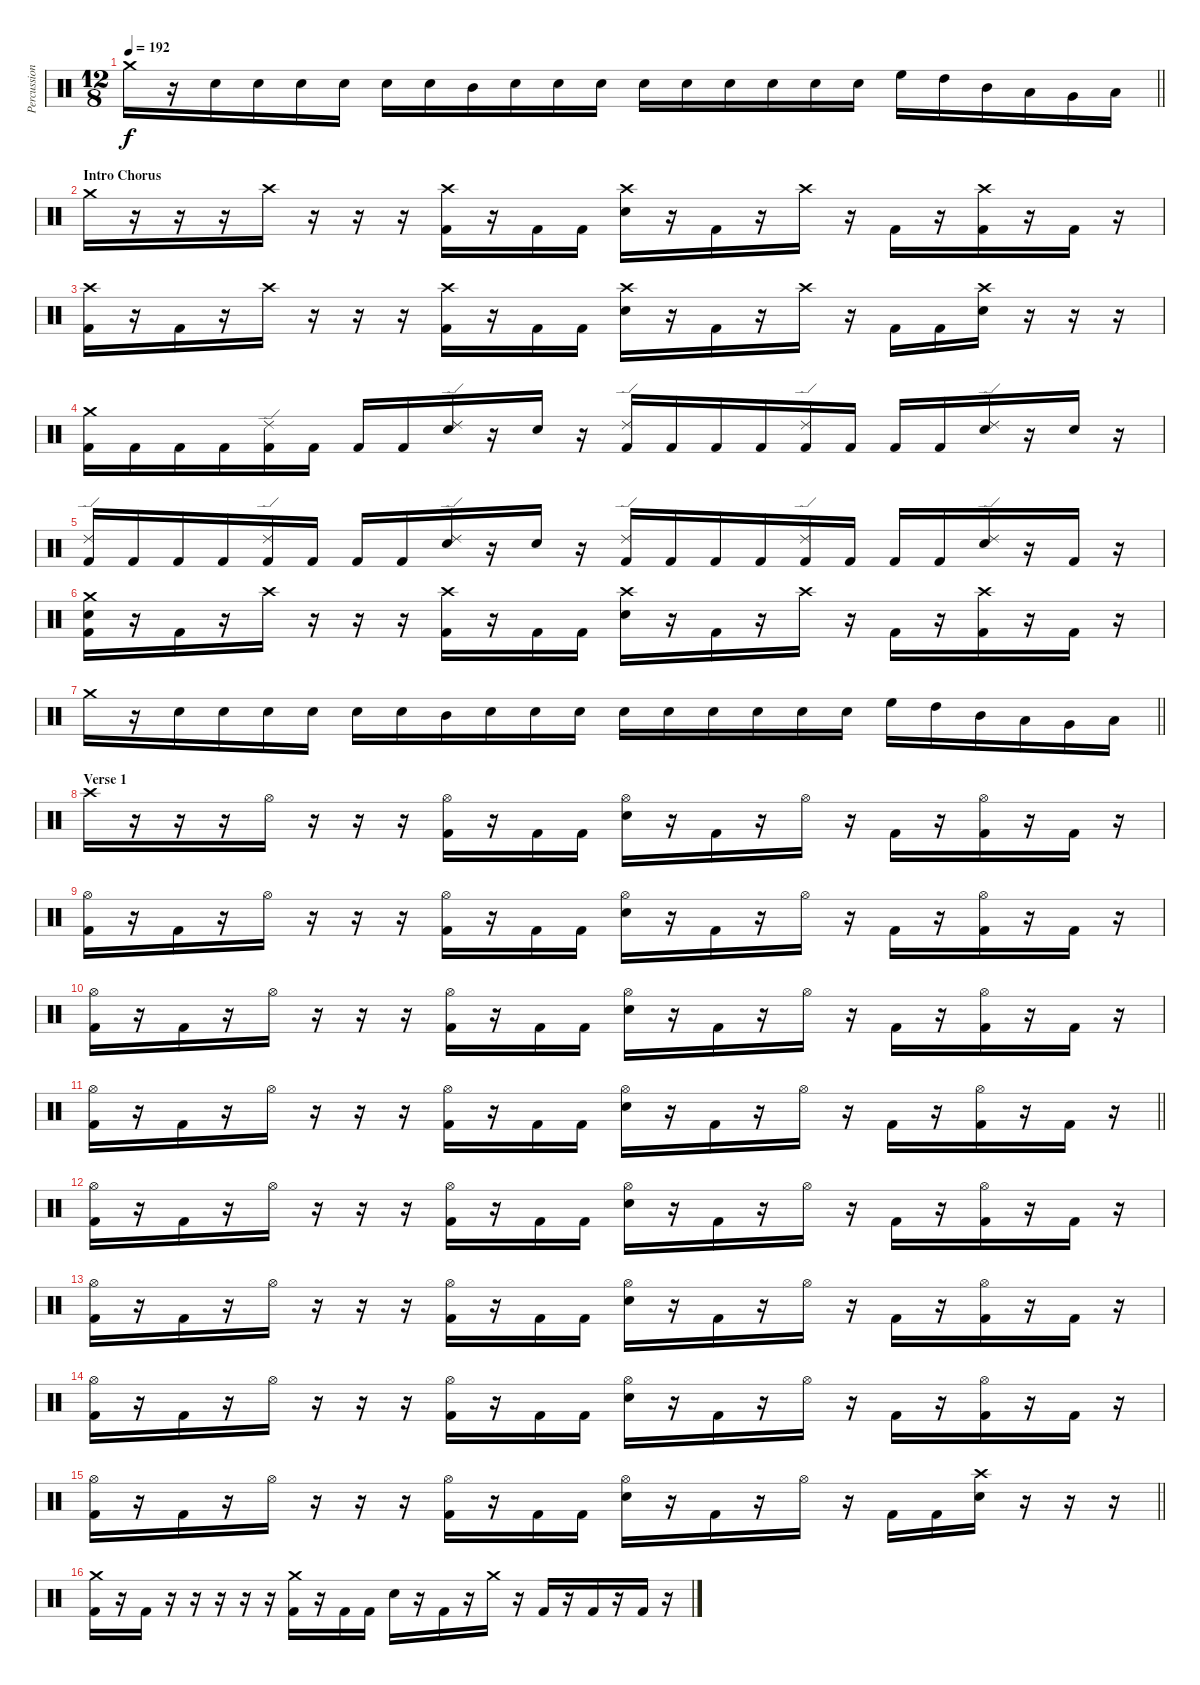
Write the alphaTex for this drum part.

\track ("Percussion" "Percussion") {instrument percussion}
\staff {score}
\articulation defaults
\ts (12 8)
\tempo 192
\clef neutral
\barLineRight lightlight
\ks c "Crash medium (hit)".16{dy f}
r.16 "Electric Snare (hit)".16 "Electric Snare (hit)".16 "Electric Snare (hit)".16 "Electric Snare (hit)".16 "Electric Snare (hit)".16 "Electric Snare (hit)".16 "Mid Tom (hit)".16 "Electric Snare (hit)".16 "Electric Snare (hit)".16 "Electric Snare (hit)".16 "Electric Snare (hit)".16 "Electric Snare (hit)".16 "Electric Snare (hit)".16 "Electric Snare (hit)".16 "Electric Snare (hit)".16 "Electric Snare (hit)".16 "High Floor Tom (hit)".16 "High Tom (hit)".16 "Mid Tom (hit)".16 "Low Tom (hit)".16 "Very Low Tom (hit)".16 "Low Floor Tom (hit)".16 |
\section ("" "Intro Chorus")
"Crash medium (hit)".16 r.16 r.16 r.16 "Crash high (hit)".16 r.16 r.16 r.16 ("Crash high (hit)" "Kick (hit) 2").16 r.16 "Kick (hit) 2".16 "Kick (hit) 2".16 ("Crash high (hit)" "Electric Snare (hit)").16 r.16 "Kick (hit) 2".16 r.16 "Crash high (hit)".16 r.16 "Kick (hit) 2".16 r.16 ("Crash high (hit)" "Kick (hit) 2").16 r.16 "Kick (hit) 2".16 r.16 |
("Crash high (hit)" "Kick (hit) 2").16 r.16 "Kick (hit) 2".16 r.16 "Crash high (hit)".16 r.16 r.16 r.16 ("Crash high (hit)" "Kick (hit) 2").16 r.16 "Kick (hit) 2".16 "Kick (hit) 2".16 ("Crash high (hit)" "Electric Snare (hit)").16 r.16 "Kick (hit) 2".16 r.16 "Crash high (hit)".16 r.16 "Kick (hit) 2".16 "Kick (hit) 2".16 ("Crash high (hit)" "Electric Snare (hit)").16 r.16 r.16 r.16 |
("Crash medium (hit)" "Kick (hit) 2").16 "Kick (hit) 2".16 "Kick (hit) 2".16 "Kick (hit) 2".16 ("Ride (edge) 2" "Kick (hit) 2").16 "Kick (hit) 2".16 "Kick (hit) 2".16 "Kick (hit) 2".16 ("Ride (edge) 2" "Electric Snare (hit)").16 r.16 "Electric Snare (hit)".16 r.16 ("Ride (edge) 2" "Kick (hit) 2").16 "Kick (hit) 2".16 "Kick (hit) 2".16 "Kick (hit) 2".16 ("Ride (edge) 2" "Kick (hit) 2").16 "Kick (hit) 2".16 "Kick (hit) 2".16 "Kick (hit) 2".16 ("Ride (edge) 2" "Electric Snare (hit)").16 r.16 "Electric Snare (hit)".16 r.16 |
("Ride (edge) 2" "Kick (hit) 2").16 "Kick (hit) 2".16 "Kick (hit) 2".16 "Kick (hit) 2".16 ("Ride (edge) 2" "Kick (hit) 2").16 "Kick (hit) 2".16 "Kick (hit) 2".16 "Kick (hit) 2".16 ("Ride (edge) 2" "Electric Snare (hit)").16 r.16 "Electric Snare (hit)".16 r.16 ("Ride (edge) 2" "Kick (hit) 2").16 "Kick (hit) 2".16 "Kick (hit) 2".16 "Kick (hit) 2".16 ("Ride (edge) 2" "Kick (hit) 2").16 "Kick (hit) 2".16 "Kick (hit) 2".16 "Kick (hit) 2".16 ("Ride (edge) 2" "Electric Snare (hit)").16 r.16 "Kick (hit) 2".16 r.16 |
("Crash medium (hit)" "Electric Snare (hit)" "Kick (hit) 2").16 r.16 "Kick (hit) 2".16 r.16 "Crash high (hit)".16 r.16 r.16 r.16 ("Crash high (hit)" "Kick (hit) 2").16 r.16 "Kick (hit) 2".16 "Kick (hit) 2".16 ("Crash high (hit)" "Electric Snare (hit)").16 r.16 "Kick (hit) 2".16 r.16 "Crash high (hit)".16 r.16 "Kick (hit) 2".16 r.16 ("Crash high (hit)" "Kick (hit) 2").16 r.16 "Kick (hit) 2".16 r.16 |
\barLineRight lightlight "Crash medium (hit)".16
r.16 "Electric Snare (hit)".16 "Electric Snare (hit)".16 "Electric Snare (hit)".16 "Electric Snare (hit)".16 "Electric Snare (hit)".16 "Electric Snare (hit)".16 "Mid Tom (hit)".16 "Electric Snare (hit)".16 "Electric Snare (hit)".16 "Electric Snare (hit)".16 "Electric Snare (hit)".16 "Electric Snare (hit)".16 "Electric Snare (hit)".16 "Electric Snare (hit)".16 "Electric Snare (hit)".16 "Electric Snare (hit)".16 "High Floor Tom (hit)".16 "High Tom (hit)".16 "Mid Tom (hit)".16 "Low Tom (hit)".16 "Very Low Tom (hit)".16 "Low Floor Tom (hit)".16 |
\section ("" "Verse 1")
"Crash high (hit)".16 r.16 r.16 r.16 "Hi-Hat (open)".16 r.16 r.16 r.16 ("Hi-Hat (open)" "Kick (hit) 2").16 r.16 "Kick (hit) 2".16 "Kick (hit) 2".16 ("Hi-Hat (open)" "Electric Snare (hit)").16 r.16 "Kick (hit) 2".16 r.16 "Hi-Hat (open)".16 r.16 "Kick (hit) 2".16 r.16 ("Hi-Hat (open)" "Kick (hit) 2").16 r.16 "Kick (hit) 2".16 r.16 |
("Hi-Hat (open)" "Kick (hit) 2").16 r.16 "Kick (hit) 2".16 r.16 "Hi-Hat (open)".16 r.16 r.16 r.16 ("Hi-Hat (open)" "Kick (hit) 2").16 r.16 "Kick (hit) 2".16 "Kick (hit) 2".16 ("Hi-Hat (open)" "Electric Snare (hit)").16 r.16 "Kick (hit) 2".16 r.16 "Hi-Hat (open)".16 r.16 "Kick (hit) 2".16 r.16 ("Hi-Hat (open)" "Kick (hit) 2").16 r.16 "Kick (hit) 2".16 r.16 |
("Hi-Hat (open)" "Kick (hit) 2").16 r.16 "Kick (hit) 2".16 r.16 "Hi-Hat (open)".16 r.16 r.16 r.16 ("Hi-Hat (open)" "Kick (hit) 2").16 r.16 "Kick (hit) 2".16 "Kick (hit) 2".16 ("Hi-Hat (open)" "Electric Snare (hit)").16 r.16 "Kick (hit) 2".16 r.16 "Hi-Hat (open)".16 r.16 "Kick (hit) 2".16 r.16 ("Hi-Hat (open)" "Kick (hit) 2").16 r.16 "Kick (hit) 2".16 r.16 |
\barLineRight lightlight
("Hi-Hat (open)" "Kick (hit) 2").16 r.16 "Kick (hit) 2".16 r.16 "Hi-Hat (open)".16 r.16 r.16 r.16 ("Hi-Hat (open)" "Kick (hit) 2").16 r.16 "Kick (hit) 2".16 "Kick (hit) 2".16 ("Hi-Hat (open)" "Electric Snare (hit)").16 r.16 "Kick (hit) 2".16 r.16 "Hi-Hat (open)".16 r.16 "Kick (hit) 2".16 r.16 ("Hi-Hat (open)" "Kick (hit) 2").16 r.16 "Kick (hit) 2".16 r.16 |
("Hi-Hat (open)" "Kick (hit) 2").16 r.16 "Kick (hit) 2".16 r.16 "Hi-Hat (open)".16 r.16 r.16 r.16 ("Hi-Hat (open)" "Kick (hit) 2").16 r.16 "Kick (hit) 2".16 "Kick (hit) 2".16 ("Hi-Hat (open)" "Electric Snare (hit)").16 r.16 "Kick (hit) 2".16 r.16 "Hi-Hat (open)".16 r.16 "Kick (hit) 2".16 r.16 ("Hi-Hat (open)" "Kick (hit) 2").16 r.16 "Kick (hit) 2".16 r.16 |
("Hi-Hat (open)" "Kick (hit) 2").16 r.16 "Kick (hit) 2".16 r.16 "Hi-Hat (open)".16 r.16 r.16 r.16 ("Hi-Hat (open)" "Kick (hit) 2").16 r.16 "Kick (hit) 2".16 "Kick (hit) 2".16 ("Hi-Hat (open)" "Electric Snare (hit)").16 r.16 "Kick (hit) 2".16 r.16 "Hi-Hat (open)".16 r.16 "Kick (hit) 2".16 r.16 ("Hi-Hat (open)" "Kick (hit) 2").16 r.16 "Kick (hit) 2".16 r.16 |
("Hi-Hat (open)" "Kick (hit) 2").16 r.16 "Kick (hit) 2".16 r.16 "Hi-Hat (open)".16 r.16 r.16 r.16 ("Hi-Hat (open)" "Kick (hit) 2").16 r.16 "Kick (hit) 2".16 "Kick (hit) 2".16 ("Hi-Hat (open)" "Electric Snare (hit)").16 r.16 "Kick (hit) 2".16 r.16 "Hi-Hat (open)".16 r.16 "Kick (hit) 2".16 r.16 ("Hi-Hat (open)" "Kick (hit) 2").16 r.16 "Kick (hit) 2".16 r.16 |
\barLineRight lightlight
("Hi-Hat (open)" "Kick (hit) 2").16 r.16 "Kick (hit) 2".16 r.16 "Hi-Hat (open)".16 r.16 r.16 r.16 ("Hi-Hat (open)" "Kick (hit) 2").16 r.16 "Kick (hit) 2".16 "Kick (hit) 2".16 ("Hi-Hat (open)" "Electric Snare (hit)").16 r.16 "Kick (hit) 2".16 r.16 "Hi-Hat (open)".16 r.16 "Kick (hit) 2".16 "Kick (hit) 2".16 ("Crash high (hit)" "Electric Snare (hit)").16 r.16 r.16 r.16 |
("Crash medium (hit)" "Kick (hit) 2").16 r.16 "Kick (hit) 2".16 r.16 r.16 r.16 r.16 r.16 ("Crash medium (hit)" "Kick (hit) 2").16 r.16 "Kick (hit) 2".16 "Kick (hit) 2".16 "Electric Snare (hit)".16 r.16 "Kick (hit) 2".16 r.16 "Crash medium (hit)".16 r.16 "Kick (hit) 2".16 r.16 "Kick (hit) 2".16 r.16 "Kick (hit) 2".16 r.16
